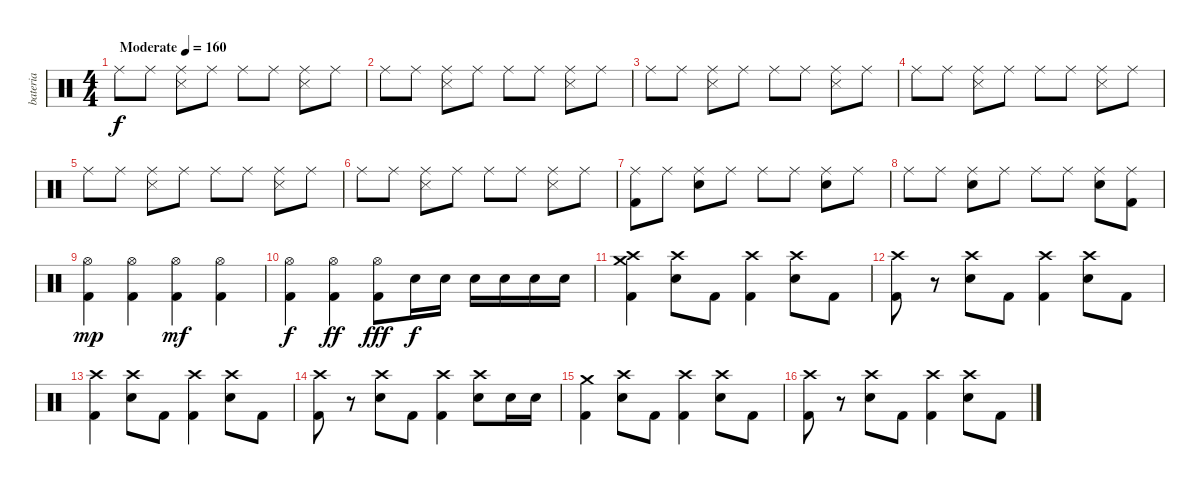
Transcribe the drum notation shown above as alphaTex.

\track ("bateria" "bateria") {instrument percussion}
\staff {score}
\articulation defaults
\ts (4 4)
\tempo (160 "Moderate")
\clef neutral
\ks c "Ride (middle)".8{dy f} "Ride (middle)".8
("Ride (middle)" "Snare (side stick) 3").8 "Ride (middle)".8 "Ride (middle)".8 "Ride (middle)".8 ("Ride (middle)" "Snare (side stick) 3").8 "Ride (middle)".8 |
"Ride (middle)".8 "Ride (middle)".8 ("Ride (middle)" "Snare (side stick) 3").8 "Ride (middle)".8 "Ride (middle)".8 "Ride (middle)".8 ("Ride (middle)" "Snare (side stick) 3").8 "Ride (middle)".8 |
"Ride (middle)".8 "Ride (middle)".8 ("Ride (middle)" "Snare (side stick) 3").8 "Ride (middle)".8 "Ride (middle)".8 "Ride (middle)".8 ("Ride (middle)" "Snare (side stick) 3").8 "Ride (middle)".8 |
"Ride (middle)".8 "Ride (middle)".8 ("Ride (middle)" "Snare (side stick) 3").8 "Ride (middle)".8 "Ride (middle)".8 "Ride (middle)".8 ("Ride (middle)" "Snare (side stick) 3").8 "Ride (middle)".8 |
"Ride (middle)".8 "Ride (middle)".8 ("Ride (middle)" "Snare (side stick) 3").8 "Ride (middle)".8 "Ride (middle)".8 "Ride (middle)".8 ("Ride (middle)" "Snare (side stick) 3").8 "Ride (middle)".8 |
"Ride (middle)".8 "Ride (middle)".8 ("Ride (middle)" "Snare (side stick) 3").8 "Ride (middle)".8 "Ride (middle)".8 "Ride (middle)".8 ("Ride (middle)" "Snare (side stick) 3").8 "Ride (middle)".8 |
("Ride (middle)" "Kick (hit) 2").8 "Ride (middle)".8 ("Ride (middle)" "Snare (hit) 2").8 "Ride (middle)".8 "Ride (middle)".8 "Ride (middle)".8 ("Ride (middle)" "Snare (hit) 2").8 "Ride (middle)".8 |
"Ride (middle)".8 "Ride (middle)".8 ("Ride (middle)" "Snare (hit) 2").8 "Ride (middle)".8 "Ride (middle)".8 "Ride (middle)".8 ("Ride (middle)" "Snare (hit) 2").8 ("Ride (middle)" "Kick (hit) 2").8 |
("Hi-Hat (open)" "Kick (hit) 2").4{dy mp} ("Hi-Hat (open)" "Kick (hit) 2").4 ("Hi-Hat (open)" "Kick (hit) 2").4{dy mf} ("Hi-Hat (open)" "Kick (hit) 2").4 |
("Hi-Hat (open)" "Kick (hit) 2").4{dy f} ("Hi-Hat (open)" "Kick (hit) 2").4{dy ff} ("Hi-Hat (open)" "Kick (hit) 2").8{dy fff} "Snare (hit) 2".16{dy f} "Snare (hit) 2".16 "Snare (hit) 2".16 "Snare (hit) 2".16 "Snare (hit) 2".16 "Snare (hit) 2".16 |
("Crash medium (hit)" "Crash high (hit)" "Kick (hit) 2").4 ("Crash high (hit)" "Snare (hit) 2").8 "Kick (hit) 2".8 ("Crash high (hit)" "Kick (hit) 2").4 ("Crash high (hit)" "Snare (hit) 2").8 "Kick (hit) 2".8 |
("Crash high (hit)" "Kick (hit) 2").8 r.8 ("Crash high (hit)" "Snare (hit) 2").8 "Kick (hit) 2".8 ("Crash high (hit)" "Kick (hit) 2").4 ("Crash high (hit)" "Snare (hit) 2").8 "Kick (hit) 2".8 |
("Crash high (hit)" "Kick (hit) 2").4 ("Crash high (hit)" "Snare (hit) 2").8 "Kick (hit) 2".8 ("Crash high (hit)" "Kick (hit) 2").4 ("Crash high (hit)" "Snare (hit) 2").8 "Kick (hit) 2".8 |
("Crash high (hit)" "Kick (hit) 2").8 r.8 ("Crash high (hit)" "Snare (hit) 2").8 "Kick (hit) 2".8 ("Crash high (hit)" "Kick (hit) 2").4 ("Crash high (hit)" "Snare (hit) 2").8 "Snare (hit) 2".16 "Snare (hit) 2".16 |
("Crash medium (hit)" "Kick (hit) 2").4 ("Crash high (hit)" "Snare (hit) 2").8 "Kick (hit) 2".8 ("Crash high (hit)" "Kick (hit) 2").4 ("Crash high (hit)" "Snare (hit) 2").8 "Kick (hit) 2".8 |
("Crash high (hit)" "Kick (hit) 2").8 r.8 ("Crash high (hit)" "Snare (hit) 2").8 "Kick (hit) 2".8 ("Crash high (hit)" "Kick (hit) 2").4 ("Crash high (hit)" "Snare (hit) 2").8 "Kick (hit) 2".8
